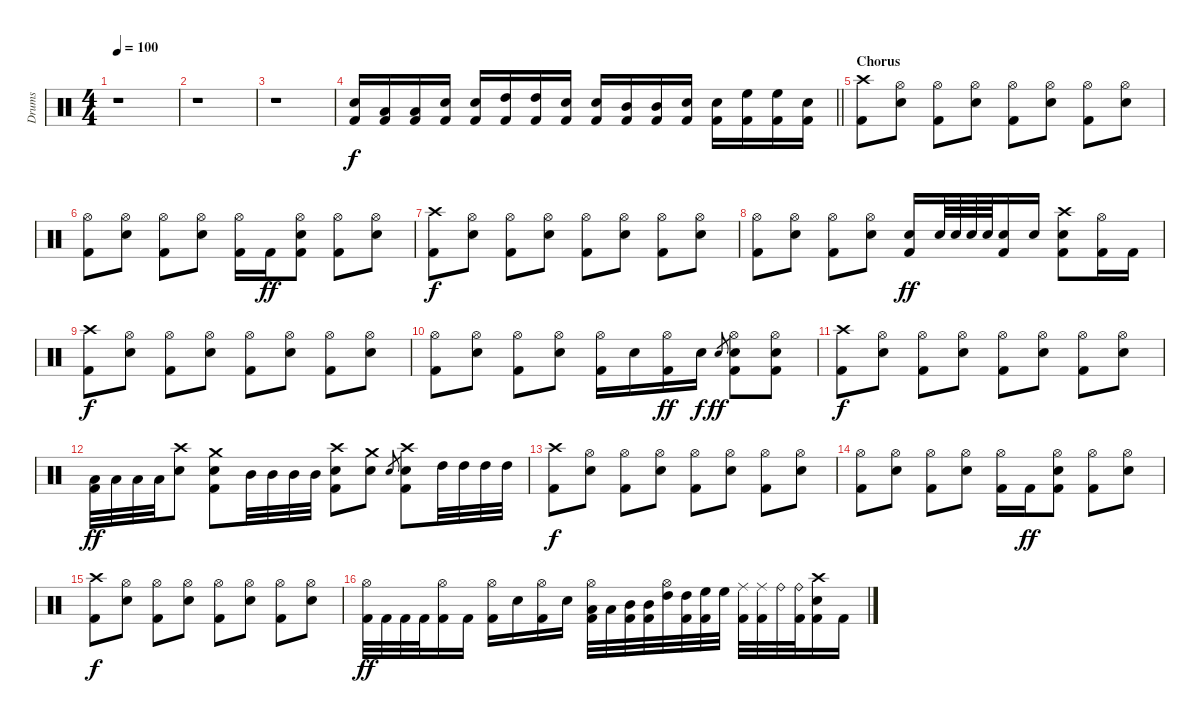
\track ("Drums" "Drums") {instrument percussion}
\staff {score}
\articulation defaults
\ts (4 4)
\tempo 100
\clef neutral
\ks c
r.1{dy f} |
r.1 |
r.1 |
\barLineRight lightlight
("Snare (hit) 2" "Kick (hit) 2").16 ("Low Tom (hit)" "Kick (hit) 2").16 ("Low Tom (hit)" "Kick (hit) 2").16 ("Snare (hit) 2" "Kick (hit) 2").16 ("Snare (hit) 2" "Kick (hit) 2").16 ("High Tom (hit)" "Kick (hit) 2").16 ("High Tom (hit)" "Kick (hit) 2").16 ("Snare (hit) 2" "Kick (hit) 2").16 ("Snare (hit) 2" "Kick (hit) 2").16 ("Mid Tom (hit)" "Kick (hit) 2").16 ("Mid Tom (hit)" "Kick (hit) 2").16 ("Snare (hit) 2" "Kick (hit) 2").16 ("Snare (hit) 2" "Kick (hit) 2").16 ("High Floor Tom (hit)" "Kick (hit) 2").16 ("High Floor Tom (hit)" "Kick (hit) 2").16 ("Snare (hit) 2" "Kick (hit) 2").16 |
\section ("" "Chorus")
("Crash high (hit)" "Kick (hit) 2").8 ("Hi-Hat (open)" "Snare (hit) 2").8 ("Hi-Hat (open)" "Kick (hit) 2").8 ("Hi-Hat (open)" "Snare (hit) 2").8 ("Hi-Hat (open)" "Kick (hit) 2").8 ("Hi-Hat (open)" "Snare (hit) 2").8 ("Hi-Hat (open)" "Kick (hit) 2").8 ("Hi-Hat (open)" "Snare (hit) 2").8 |
("Hi-Hat (open)" "Kick (hit) 2").8 ("Hi-Hat (open)" "Snare (hit) 2").8 ("Hi-Hat (open)" "Kick (hit) 2").8 ("Hi-Hat (open)" "Snare (hit) 2").8 ("Hi-Hat (open)" "Kick (hit) 2").16 "Kick (hit) 2".16{dy ff} ("Hi-Hat (open)" "Snare (hit) 2" "Kick (hit) 2").8 ("Hi-Hat (open)" "Kick (hit) 2").8 ("Hi-Hat (open)" "Snare (hit) 2").8 |
("Crash high (hit)" "Kick (hit) 2").8{dy f} ("Hi-Hat (open)" "Snare (hit) 2").8 ("Hi-Hat (open)" "Kick (hit) 2").8 ("Hi-Hat (open)" "Snare (hit) 2").8 ("Hi-Hat (open)" "Kick (hit) 2").8 ("Hi-Hat (open)" "Snare (hit) 2").8 ("Hi-Hat (open)" "Kick (hit) 2").8 ("Hi-Hat (open)" "Snare (hit) 2").8 |
("Hi-Hat (open)" "Kick (hit) 2").8 ("Hi-Hat (open)" "Snare (hit) 2").8 ("Hi-Hat (open)" "Kick (hit) 2").8 ("Hi-Hat (open)" "Snare (hit) 2").8 ("Snare (hit) 2" "Kick (hit) 2").16{dy ff} "Snare (hit) 2".64 "Snare (hit) 2".64 "Snare (hit) 2".64 "Snare (hit) 2".64 ("Snare (hit) 2" "Kick (hit) 2").16 "Snare (hit) 2".16 ("Crash high (hit)" "Snare (hit) 2" "Kick (hit) 2").8 ("Hi-Hat (open)" "Kick (hit) 2").16 "Kick (hit) 2".16 |
("Crash high (hit)" "Kick (hit) 2").8{dy f} ("Hi-Hat (open)" "Snare (hit) 2").8 ("Hi-Hat (open)" "Kick (hit) 2").8 ("Hi-Hat (open)" "Snare (hit) 2").8 ("Hi-Hat (open)" "Kick (hit) 2").8 ("Hi-Hat (open)" "Snare (hit) 2").8 ("Hi-Hat (open)" "Kick (hit) 2").8 ("Hi-Hat (open)" "Snare (hit) 2").8 |
("Hi-Hat (open)" "Kick (hit) 2").8 ("Hi-Hat (open)" "Snare (hit) 2").8 ("Hi-Hat (open)" "Kick (hit) 2").8 ("Hi-Hat (open)" "Snare (hit) 2").8 ("Hi-Hat (open)" "Kick (hit) 2").16 "Snare (hit) 2".16 ("Hi-Hat (open)" "Kick (hit) 2").16{dy ff} "Snare (hit) 2".16{dy f} "Snare (hit) 2".8{gr dy ff} ("Hi-Hat (open)" "Snare (hit) 2" "Kick (hit) 2").8 ("Hi-Hat (open)" "Snare (hit) 2" "Kick (hit) 2").8 |
("Crash high (hit)" "Kick (hit) 2").8{dy f} ("Hi-Hat (open)" "Snare (hit) 2").8 ("Hi-Hat (open)" "Kick (hit) 2").8 ("Hi-Hat (open)" "Snare (hit) 2").8 ("Hi-Hat (open)" "Kick (hit) 2").8 ("Hi-Hat (open)" "Snare (hit) 2").8 ("Hi-Hat (open)" "Kick (hit) 2").8 ("Hi-Hat (open)" "Snare (hit) 2").8 |
("Low Tom (hit)" "Kick (hit) 2").32{dy ff} "Low Tom (hit)".32 "Low Tom (hit)".32 "Low Tom (hit)".32 ("Crash high (hit)" "Snare (hit) 2").8 ("Crash medium (hit)" "Snare (hit) 2" "Kick (hit) 2").8 "Mid Tom (hit)".32 "Mid Tom (hit)".32 "Mid Tom (hit)".32 "Mid Tom (hit)".32 ("Crash high (hit)" "Snare (hit) 2" "Kick (hit) 2").8 ("Crash medium (hit)" "Snare (hit) 2").8 "Snare (hit) 2".8{gr} ("Crash high (hit)" "Snare (hit) 2" "Kick (hit) 2").8 "High Tom (hit)".32 "High Tom (hit)".32 "High Tom (hit)".32 "High Tom (hit)".32 |
("Crash high (hit)" "Kick (hit) 2").8{dy f} ("Hi-Hat (open)" "Snare (hit) 2").8 ("Hi-Hat (open)" "Kick (hit) 2").8 ("Hi-Hat (open)" "Snare (hit) 2").8 ("Hi-Hat (open)" "Kick (hit) 2").8 ("Hi-Hat (open)" "Snare (hit) 2").8 ("Hi-Hat (open)" "Kick (hit) 2").8 ("Hi-Hat (open)" "Snare (hit) 2").8 |
("Hi-Hat (open)" "Kick (hit) 2").8 ("Hi-Hat (open)" "Snare (hit) 2").8 ("Hi-Hat (open)" "Kick (hit) 2").8 ("Hi-Hat (open)" "Snare (hit) 2").8 ("Hi-Hat (open)" "Kick (hit) 2").16 "Kick (hit) 2".16{dy ff} ("Hi-Hat (open)" "Snare (hit) 2" "Kick (hit) 2").8 ("Hi-Hat (open)" "Kick (hit) 2").8 ("Hi-Hat (open)" "Snare (hit) 2").8 |
("Crash high (hit)" "Kick (hit) 2").8{dy f} ("Hi-Hat (open)" "Snare (hit) 2").8 ("Hi-Hat (open)" "Kick (hit) 2").8 ("Hi-Hat (open)" "Snare (hit) 2").8 ("Hi-Hat (open)" "Kick (hit) 2").8 ("Hi-Hat (open)" "Snare (hit) 2").8 ("Hi-Hat (open)" "Kick (hit) 2").8 ("Hi-Hat (open)" "Snare (hit) 2").8 |
("Hi-Hat (open)" "Kick (hit) 2").32{dy ff} "Kick (hit) 2".32 "Kick (hit) 2".32 "Kick (hit) 2".32 ("Hi-Hat (open)" "Kick (hit) 2").16 "Kick (hit) 2".16 ("Hi-Hat (open)" "Kick (hit) 2").16 "Snare (hit) 2".16 ("Hi-Hat (open)" "Kick (hit) 2").16 "Snare (hit) 2".16 ("Hi-Hat (open)" "Low Tom (hit)" "Kick (hit) 2").32 "Low Tom (hit)".32 ("Mid Tom (hit)" "Kick (hit) 2").32 ("Mid Tom (hit)" "Kick (hit) 2").32 ("Hi-Hat (open)" "High Tom (hit)").32 ("High Tom (hit)" "Kick (hit) 2").32 ("High Floor Tom (hit)" "Kick (hit) 2").32 "High Floor Tom (hit)".32 ("Ride (middle)" "Kick (hit) 2").32 ("Ride (middle)" "Kick (hit) 2").32 "Ride (bell)".32 ("Ride (bell)" "Kick (hit) 2").32 ("Crash high (hit)" "Snare (hit) 2" "Kick (hit) 2").16 "Kick (hit) 2".16
